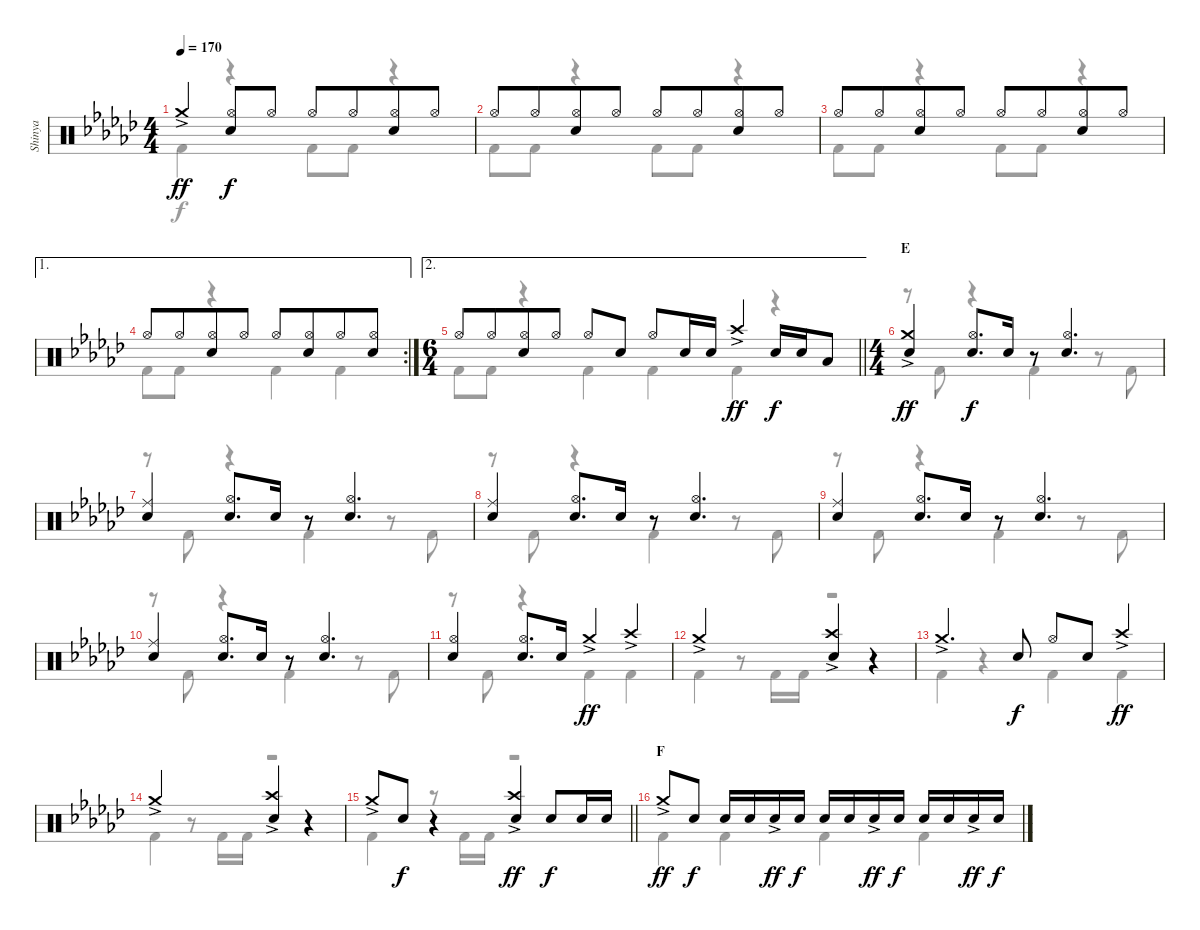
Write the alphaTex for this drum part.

\track ("Shinya" "Shinya") {instrument percussion}
\staff {score}
\articulation defaults
\voice
\ts (4 4)
\tempo 170
\clef neutral
\ks ebminor "Crash medium (hit)"{ac}.4{dy ff}
("Hi-Hat (open)" "Snare (hit) 2").8{dy f} "Hi-Hat (open)".8 "Hi-Hat (open)".8 "Hi-Hat (open)".8{beam merge} ("Hi-Hat (open)" "Snare (hit) 2").8 "Hi-Hat (open)".8 |
"Hi-Hat (open)".8 "Hi-Hat (open)".8{beam merge} ("Hi-Hat (open)" "Snare (hit) 2").8 "Hi-Hat (open)".8 "Hi-Hat (open)".8 "Hi-Hat (open)".8{beam merge} ("Hi-Hat (open)" "Snare (hit) 2").8 "Hi-Hat (open)".8 |
"Hi-Hat (open)".8 "Hi-Hat (open)".8{beam merge} ("Hi-Hat (open)" "Snare (hit) 2").8 "Hi-Hat (open)".8 "Hi-Hat (open)".8 "Hi-Hat (open)".8{beam merge} ("Hi-Hat (open)" "Snare (hit) 2").8 "Hi-Hat (open)".8 |
\ae 1
\rc 2 "Hi-Hat (open)".8 "Hi-Hat (open)".8{beam merge}
("Hi-Hat (open)" "Snare (hit) 2").8 "Hi-Hat (open)".8 "Hi-Hat (open)".8 ("Hi-Hat (open)" "Snare (hit) 2").8{beam merge} "Hi-Hat (open)".8 ("Hi-Hat (open)" "Snare (hit) 2").8 |
\ae 2
\ts (6 4)
\barLineRight lightlight "Hi-Hat (open)".8 "Hi-Hat (open)".8{beam merge}
("Hi-Hat (open)" "Snare (hit) 2").8 "Hi-Hat (open)".8{beam split} "Hi-Hat (open)".8 "Snare (hit) 2".8 "Hi-Hat (open)".8 "Snare (hit) 2".16 "Snare (hit) 2".16 "Crash high (hit)"{ac}.4{dy ff} "Snare (hit) 2".16{dy f} "Snare (hit) 2".16 "Low Tom (hit)".8 |
\ts (4 4)
\section ("" "E")
("Crash medium (hit)"{ac} "Snare (hit) 2").4{dy ff} ("Hi-Hat (open)" "Snare (hit) 2").8{d dy f} "Snare (hit) 2".16 r.8 ("Hi-Hat (open)" "Snare (hit) 2").4{d} |
("Ride (middle)" "Snare (hit) 2").4 ("Hi-Hat (open)" "Snare (hit) 2").8{d} "Snare (hit) 2".16 r.8 ("Hi-Hat (open)" "Snare (hit) 2").4{d} |
("Ride (middle)" "Snare (hit) 2").4 ("Hi-Hat (open)" "Snare (hit) 2").8{d} "Snare (hit) 2".16 r.8 ("Hi-Hat (open)" "Snare (hit) 2").4{d} |
("Ride (middle)" "Snare (hit) 2").4 ("Hi-Hat (open)" "Snare (hit) 2").8{d} "Snare (hit) 2".16 r.8 ("Hi-Hat (open)" "Snare (hit) 2").4{d} |
("Ride (middle)" "Snare (hit) 2").4 ("Hi-Hat (open)" "Snare (hit) 2").8{d} "Snare (hit) 2".16 r.8 ("Hi-Hat (open)" "Snare (hit) 2").4{d} |
("Hi-Hat (open)" "Snare (hit) 2").4 ("Hi-Hat (open)" "Snare (hit) 2").8{d} "Snare (hit) 2".16 "Crash medium (hit)"{ac}.4{dy ff} "Crash high (hit)"{ac}.4 |
"Crash medium (hit)"{ac}.2 ("Crash high (hit)"{ac} "Snare (hit) 2").4 r.4 |
"Crash medium (hit)"{ac}.4{d} "Snare (hit) 2".8{dy f} "Hi-Hat (open)".8 "Snare (hit) 2".8 "Crash high (hit)"{ac}.4{dy ff} |
"Crash medium (hit)"{ac}.2 ("Crash high (hit)"{ac} "Snare (hit) 2").4 r.4 |
\barLineRight lightlight "Crash medium (hit)"{ac}.8 "Snare (hit) 2".8{dy f}
r.4 ("Crash high (hit)"{ac} "Snare (hit) 2").4{dy ff} "Snare (hit) 2".8{dy f} "Snare (hit) 2".16 "Snare (hit) 2".16 |
\section ("" "F")
"Crash medium (hit)"{ac}.8{dy ff} "Snare (hit) 2".8{dy f} "Snare (hit) 2".16 "Snare (hit) 2".16 "Snare (hit) 2"{ac}.16{dy ff} "Snare (hit) 2".16{dy f} "Snare (hit) 2".16 "Snare (hit) 2".16 "Snare (hit) 2"{ac}.16{dy ff} "Snare (hit) 2".16{dy f} "Snare (hit) 2".16 "Snare (hit) 2".16 "Snare (hit) 2"{ac}.16{dy ff} "Snare (hit) 2".16{dy f}
\voice
\clef neutral
\ottava regular
\simile none
\ks ebminor "Kick (hit) 2".4{dy f}
r.4 "Kick (hit) 2".8 "Kick (hit) 2".8 r.4 |
"Kick (hit) 2".8 "Kick (hit) 2".8 r.4 "Kick (hit) 2".8 "Kick (hit) 2".8 r.4 |
"Kick (hit) 2".8 "Kick (hit) 2".8 r.4 "Kick (hit) 2".8 "Kick (hit) 2".8 r.4 |
"Kick (hit) 2".8 "Kick (hit) 2".8 r.4 "Kick (hit) 2".4 "Kick (hit) 2".4 |
\barLineRight lightlight "Kick (hit) 2".8 "Kick (hit) 2".8
r.4 "Kick (hit) 2".4 "Kick (hit) 2".4 "Kick (hit) 2".4 r.4 |
r.8 "Kick (hit) 2".8 r.4 "Kick (hit) 2".4 r.8 "Kick (hit) 2".8 |
r.8 "Kick (hit) 2".8 r.4 "Kick (hit) 2".4 r.8 "Kick (hit) 2".8 |
r.8 "Kick (hit) 2".8 r.4 "Kick (hit) 2".4 r.8 "Kick (hit) 2".8 |
r.8 "Kick (hit) 2".8 r.4 "Kick (hit) 2".4 r.8 "Kick (hit) 2".8 |
r.8 "Kick (hit) 2".8 r.4 "Kick (hit) 2".4 r.8 "Kick (hit) 2".8 |
r.8 "Kick (hit) 2".8 r.4 "Kick (hit) 2".4 "Kick (hit) 2".4 |
"Kick (hit) 2".4 r.8 "Kick (hit) 2".16 "Kick (hit) 2".16 r.2 |
"Kick (hit) 2".4 r.4 "Kick (hit) 2".4 "Kick (hit) 2".4 |
"Kick (hit) 2".4 r.8 "Kick (hit) 2".16 "Kick (hit) 2".16 r.2 |
\barLineRight lightlight "Kick (hit) 2".4
r.8 "Kick (hit) 2".16 "Kick (hit) 2".16 r.2 |
"Kick (hit) 2".4 "Kick (hit) 2".4 "Kick (hit) 2".4 "Kick (hit) 2".4
